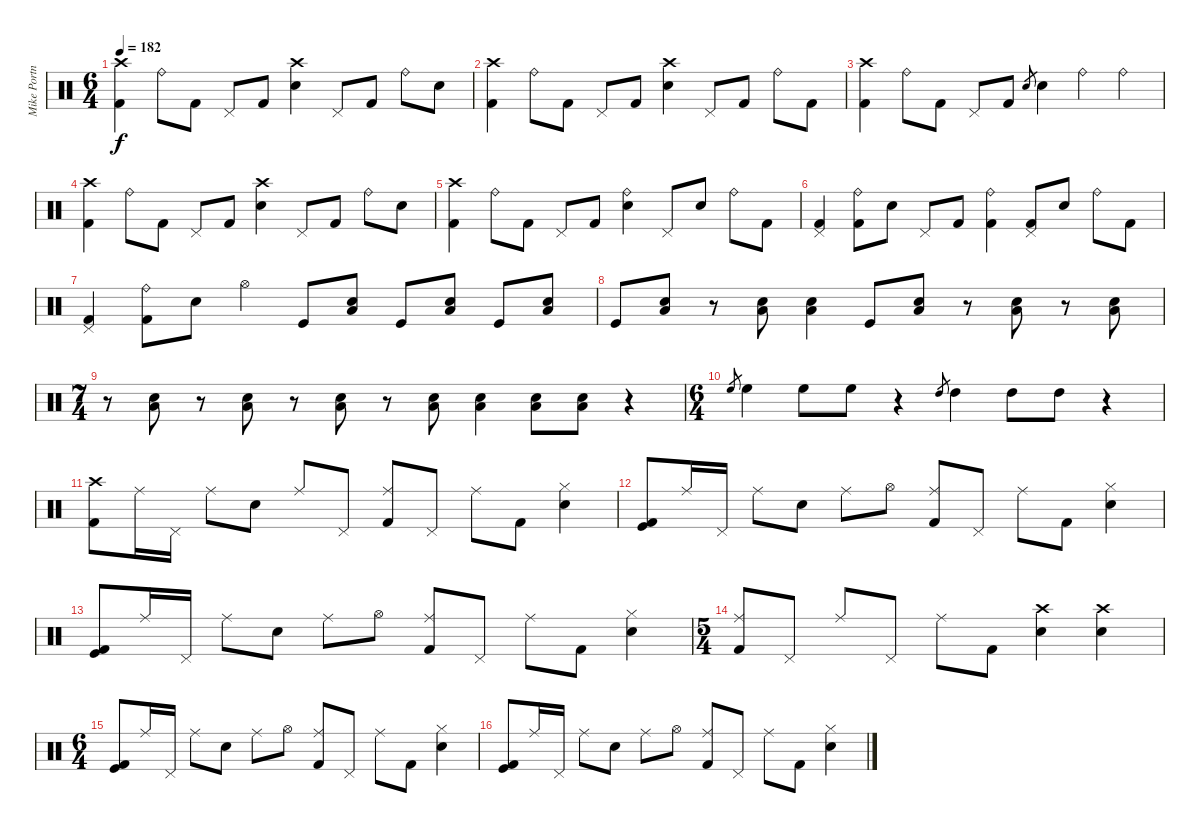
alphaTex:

\track ("Mike Portnoy" "Mike Portn") {instrument percussion}
\staff {score}
\articulation defaults
\ts (6 4)
\tempo 182
\clef neutral
\ks c
("Crash high (hit)" "Kick (hit) 2").4{dy f} "Ride (bell)".8 "Kick (hit) 2".8 "Pedal Hi-Hat (hit)".8 "Kick (hit) 2".8 ("Crash high (hit)" "Electric Snare (hit)").4 "Pedal Hi-Hat (hit)".8 "Kick (hit) 2".8 "Ride (bell)".8 "Electric Snare (hit)".8 |
("Crash high (hit)" "Kick (hit) 2").4 "Ride (bell)".8 "Kick (hit) 2".8 "Pedal Hi-Hat (hit)".8 "Kick (hit) 2".8 ("Crash high (hit)" "Electric Snare (hit)").4 "Pedal Hi-Hat (hit)".8 "Kick (hit) 2".8 "Ride (bell)".8 "Kick (hit) 2".8 |
("Crash high (hit)" "Kick (hit) 2").4 "Ride (bell)".8 "Kick (hit) 2".8 "Pedal Hi-Hat (hit)".8 "Kick (hit) 2".8 "Electric Snare (hit)".8{gr} "Electric Snare (hit)".4 "Ride (bell)".4 "Ride (bell)".4 |
("Crash high (hit)" "Kick (hit) 2").4 "Ride (bell)".8 "Kick (hit) 2".8 "Pedal Hi-Hat (hit)".8 "Kick (hit) 2".8 ("Crash high (hit)" "Electric Snare (hit)").4 "Pedal Hi-Hat (hit)".8 "Kick (hit) 2".8 "Ride (bell)".8 "Electric Snare (hit)".8 |
("Crash high (hit)" "Kick (hit) 2").4 "Ride (bell)".8 "Kick (hit) 2".8 "Pedal Hi-Hat (hit)".8 "Kick (hit) 2".8 ("Ride (bell)" "Electric Snare (hit)").4 "Pedal Hi-Hat (hit)".8 "Electric Snare (hit)".8 "Ride (bell)".8 "Kick (hit) 2".8 |
("Pedal Hi-Hat (hit)" "Kick (hit) 2").4 ("Ride (bell)" "Kick (hit) 2").8 "Electric Snare (hit)".8 "Pedal Hi-Hat (hit)".8 "Kick (hit) 2".8 ("Ride (bell)" "Kick (hit) 2").4 ("Pedal Hi-Hat (hit)" "Kick (hit) 2").8 "Electric Snare (hit)".8 "Ride (bell)".8 "Kick (hit) 2".8 |
("Pedal Hi-Hat (hit)" "Kick (hit) 2").4 ("Ride (bell)" "Kick (hit) 2").8 "Electric Snare (hit)".8 "Hi-Hat (open)".4 "Kick (hit)".8 ("Electric Snare (hit)" "Low Floor Tom (hit)").8 "Kick (hit)".8 ("Electric Snare (hit)" "Low Floor Tom (hit)").8 "Kick (hit)".8 ("Electric Snare (hit)" "Low Floor Tom (hit)").8 |
"Kick (hit)".8 ("Electric Snare (hit)" "Low Floor Tom (hit)").8 r.8 ("Electric Snare (hit)" "Low Floor Tom (hit)").8 ("Electric Snare (hit)" "Low Floor Tom (hit)").4 "Kick (hit)".8 ("Electric Snare (hit)" "Low Floor Tom (hit)").8 r.8 ("Electric Snare (hit)" "Low Floor Tom (hit)").8 r.8 ("Electric Snare (hit)" "Low Floor Tom (hit)").8 |
\ts (7 4)
r.8 ("Electric Snare (hit)" "Low Floor Tom (hit)").8 r.8 ("Electric Snare (hit)" "Low Floor Tom (hit)").8 r.8 ("Electric Snare (hit)" "Low Floor Tom (hit)").8 r.8 ("Electric Snare (hit)" "Low Floor Tom (hit)").8 ("Electric Snare (hit)" "Low Floor Tom (hit)").4 ("Electric Snare (hit)" "Low Floor Tom (hit)").8 ("Electric Snare (hit)" "Low Floor Tom (hit)").8 r.4 |
\ts (6 4)
"High Floor Tom (hit)".8{gr} "High Floor Tom (hit)".4 "High Floor Tom (hit)".8 "High Floor Tom (hit)".8 r.4 "High Tom (hit)".8{gr} "High Tom (hit)".4 "High Tom (hit)".8 "High Tom (hit)".8 r.4 |
("Crash high (hit)" "Kick (hit) 2").8 "Ride (middle)".16 "Pedal Hi-Hat (hit)".16 "Ride (middle)".8 "Electric Snare (hit)".8 "Ride (middle)".8 "Pedal Hi-Hat (hit)".8 ("Ride (middle)" "Kick (hit) 2").8 "Pedal Hi-Hat (hit)".8 "Ride (middle)".8 "Kick (hit) 2".8 ("Hi-Hat (closed)" "Electric Snare (hit)").4 |
("Kick (hit) 2" "Kick (hit)").8 "Ride (middle)".16 "Pedal Hi-Hat (hit)".16 "Ride (middle)".8 "Electric Snare (hit)".8 "Ride (middle)".8 "Hi-Hat (open)".8 ("Ride (middle)" "Kick (hit) 2").8 "Pedal Hi-Hat (hit)".8 "Ride (middle)".8 "Kick (hit) 2".8 ("Hi-Hat (closed)" "Electric Snare (hit)").4 |
("Kick (hit) 2" "Kick (hit)").8 "Ride (middle)".16 "Pedal Hi-Hat (hit)".16 "Ride (middle)".8 "Electric Snare (hit)".8 "Ride (middle)".8 "Hi-Hat (open)".8 ("Ride (middle)" "Kick (hit) 2").8 "Pedal Hi-Hat (hit)".8 "Ride (middle)".8 "Kick (hit) 2".8 ("Hi-Hat (closed)" "Electric Snare (hit)").4 |
\ts (5 4)
("Ride (middle)" "Kick (hit) 2").8 "Pedal Hi-Hat (hit)".8 "Ride (middle)".8 "Pedal Hi-Hat (hit)".8 "Ride (middle)".8 "Kick (hit) 2".8 ("Crash high (hit)" "Electric Snare (hit)").4 ("Crash high (hit)" "Electric Snare (hit)").4 |
\ts (6 4)
("Kick (hit) 2" "Kick (hit)").8 "Ride (middle)".16 "Pedal Hi-Hat (hit)".16 "Ride (middle)".8 "Electric Snare (hit)".8 "Ride (middle)".8 "Hi-Hat (open)".8 ("Ride (middle)" "Kick (hit) 2").8 "Pedal Hi-Hat (hit)".8 "Ride (middle)".8 "Kick (hit) 2".8 ("Hi-Hat (closed)" "Electric Snare (hit)").4 |
("Kick (hit) 2" "Kick (hit)").8 "Ride (middle)".16 "Pedal Hi-Hat (hit)".16 "Ride (middle)".8 "Electric Snare (hit)".8 "Ride (middle)".8 "Hi-Hat (open)".8 ("Ride (middle)" "Kick (hit) 2").8 "Pedal Hi-Hat (hit)".8 "Ride (middle)".8 "Kick (hit) 2".8 ("Hi-Hat (closed)" "Electric Snare (hit)").4
